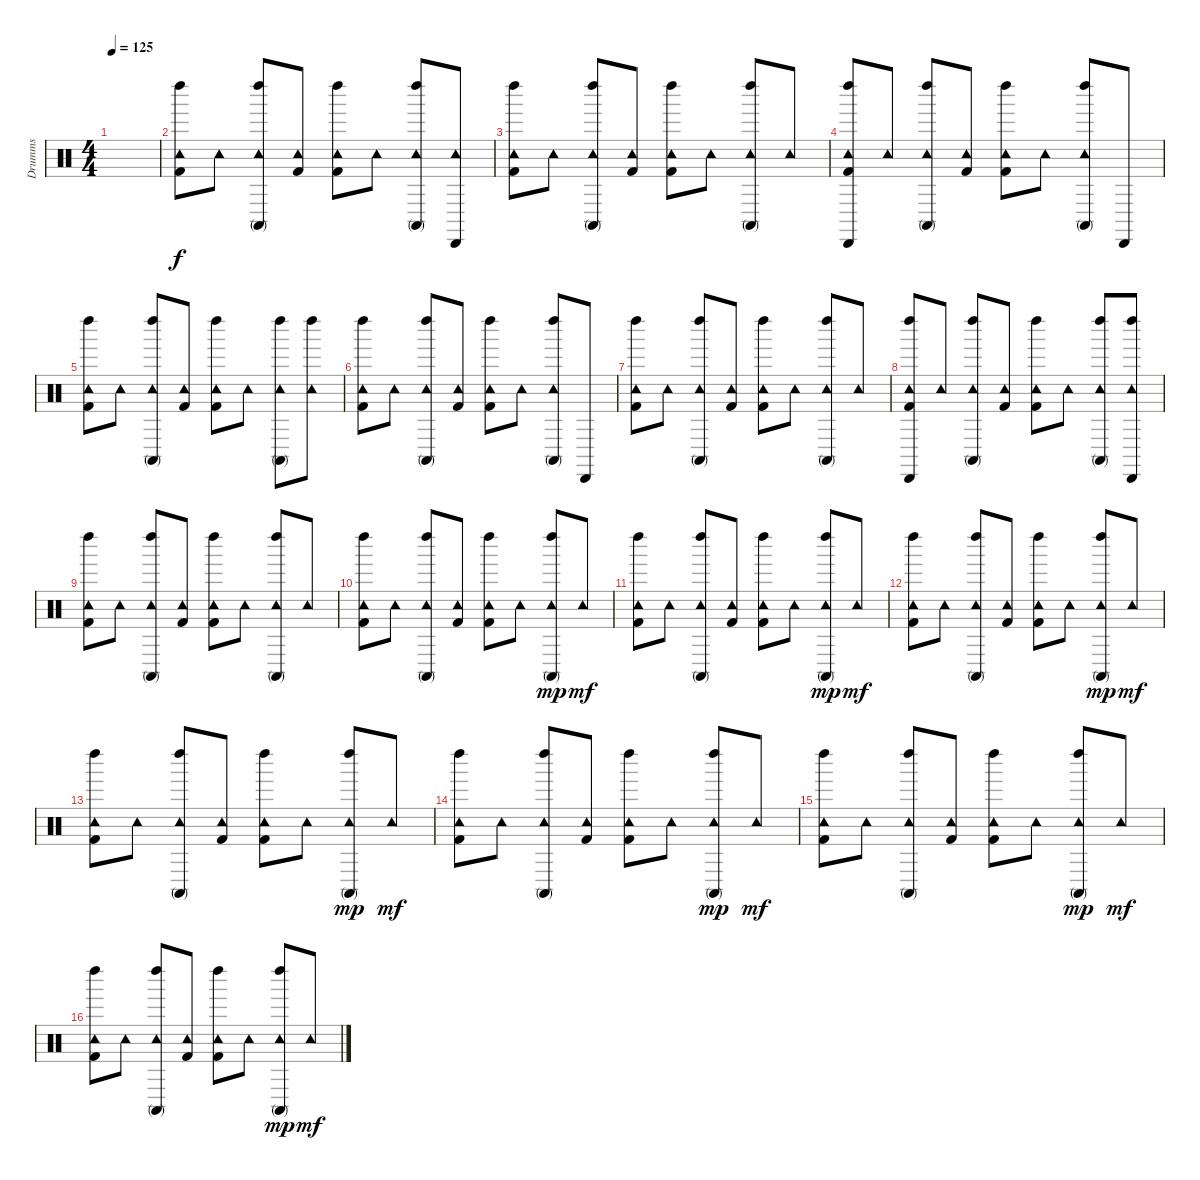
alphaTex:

\track ("Drumms" "Drumms") {instrument percussion}
\staff {score}
\articulation defaults
\ts (4 4)
\tempo 125
\clef neutral
\ks c
|
("Kick (hit) 2" "Tambourine (hit)" "Left Maraca (hit)").8{balance 8} "Tambourine (hit)".8 ("Conga high (mute)" "Tambourine (hit)" "Left Maraca (hit)").8 ("Kick (hit) 2" "Tambourine (hit)").8 ("Kick (hit) 2" "Tambourine (hit)" "Left Maraca (hit)").8 "Tambourine (hit)".8 ("Conga high (mute)" "Tambourine (hit)" "Left Maraca (hit)").8 ("Tambourine (hit)" "Cabasa (hit)").8{balance 16} |
("Kick (hit) 2" "Tambourine (hit)" "Left Maraca (hit)").8{balance 8} "Tambourine (hit)".8 ("Conga high (mute)" "Tambourine (hit)" "Left Maraca (hit)").8 ("Kick (hit) 2" "Tambourine (hit)").8 ("Kick (hit) 2" "Tambourine (hit)" "Left Maraca (hit)").8 "Tambourine (hit)".8 ("Conga high (mute)" "Tambourine (hit)" "Left Maraca (hit)").8 "Tambourine (hit)".8 |
("Kick (hit) 2" "Tambourine (hit)" "Left Maraca (hit)" "Cabasa (hit)").8{balance 8} "Tambourine (hit)".8 ("Conga high (mute)" "Tambourine (hit)" "Left Maraca (hit)").8 ("Kick (hit) 2" "Tambourine (hit)").8 ("Kick (hit) 2" "Tambourine (hit)" "Left Maraca (hit)").8 "Tambourine (hit)".8 ("Conga high (mute)" "Tambourine (hit)" "Left Maraca (hit)").8 "Cabasa (hit)".8{balance 16} |
("Kick (hit) 2" "Tambourine (hit)" "Left Maraca (hit)").8{balance 8} "Tambourine (hit)".8 ("Conga high (mute)" "Tambourine (hit)" "Left Maraca (hit)").8 ("Kick (hit) 2" "Tambourine (hit)").8 ("Kick (hit) 2" "Tambourine (hit)" "Left Maraca (hit)").8 "Tambourine (hit)".8 ("Conga high (mute)" "Tambourine (hit)" "Left Maraca (hit)").8 ("Tambourine (hit)" "Left Maraca (hit)").8 |
("Kick (hit) 2" "Tambourine (hit)" "Left Maraca (hit)").8{balance 8} "Tambourine (hit)".8 ("Conga high (mute)" "Tambourine (hit)" "Left Maraca (hit)").8 ("Kick (hit) 2" "Tambourine (hit)").8 ("Kick (hit) 2" "Tambourine (hit)" "Left Maraca (hit)").8 "Tambourine (hit)".8 ("Conga high (mute)" "Tambourine (hit)" "Left Maraca (hit)").8 "Cabasa (hit)".8{balance 16} |
("Kick (hit) 2" "Tambourine (hit)" "Left Maraca (hit)").8{balance 8} "Tambourine (hit)".8 ("Conga high (mute)" "Tambourine (hit)" "Left Maraca (hit)").8 ("Kick (hit) 2" "Tambourine (hit)").8 ("Kick (hit) 2" "Tambourine (hit)" "Left Maraca (hit)").8 "Tambourine (hit)".8 ("Conga high (mute)" "Tambourine (hit)" "Left Maraca (hit)").8 "Tambourine (hit)".8 |
("Kick (hit) 2" "Tambourine (hit)" "Left Maraca (hit)" "Cabasa (hit)").8{balance 8} "Tambourine (hit)".8 ("Conga high (mute)" "Tambourine (hit)" "Left Maraca (hit)").8 ("Kick (hit) 2" "Tambourine (hit)").8 ("Kick (hit) 2" "Tambourine (hit)" "Left Maraca (hit)").8 "Tambourine (hit)".8 ("Conga high (mute)" "Tambourine (hit)" "Left Maraca (hit)").8 ("Tambourine (hit)" "Cabasa (hit)" "Left Maraca (hit)").8{balance 16} |
("Kick (hit) 2" "Tambourine (hit)" "Left Maraca (hit)").8{balance 8} "Tambourine (hit)".8 ("Conga high (mute)" "Tambourine (hit)" "Left Maraca (hit)").8 ("Kick (hit) 2" "Tambourine (hit)").8 ("Kick (hit) 2" "Tambourine (hit)" "Left Maraca (hit)").8 "Tambourine (hit)".8 ("Conga high (mute)" "Tambourine (hit)" "Left Maraca (hit)").8 "Tambourine (hit)".8 |
("Kick (hit) 2" "Tambourine (hit)" "Left Maraca (hit)").8 "Tambourine (hit)".8 ("Conga high (mute)" "Tambourine (hit)" "Left Maraca (hit)").8 ("Kick (hit) 2" "Tambourine (hit)").8 ("Kick (hit) 2" "Tambourine (hit)" "Left Maraca (hit)").8 "Tambourine (hit)".8 ("Conga high (mute)" "Tambourine (hit)" "Left Maraca (hit)").8{dy mp} "Tambourine (hit)".8{dy mf} |
("Kick (hit) 2" "Tambourine (hit)" "Left Maraca (hit)").8 "Tambourine (hit)".8 ("Conga high (mute)" "Tambourine (hit)" "Left Maraca (hit)").8 ("Kick (hit) 2" "Tambourine (hit)").8 ("Kick (hit) 2" "Tambourine (hit)" "Left Maraca (hit)").8 "Tambourine (hit)".8 ("Conga high (mute)" "Tambourine (hit)" "Left Maraca (hit)").8{dy mp} "Tambourine (hit)".8{dy mf} |
("Kick (hit) 2" "Tambourine (hit)" "Left Maraca (hit)").8 "Tambourine (hit)".8 ("Conga high (mute)" "Tambourine (hit)" "Left Maraca (hit)").8 ("Kick (hit) 2" "Tambourine (hit)").8 ("Kick (hit) 2" "Tambourine (hit)" "Left Maraca (hit)").8 "Tambourine (hit)".8 ("Conga high (mute)" "Tambourine (hit)" "Left Maraca (hit)").8{dy mp} "Tambourine (hit)".8{dy mf} |
("Kick (hit) 2" "Tambourine (hit)" "Left Maraca (hit)").8 "Tambourine (hit)".8 ("Conga high (mute)" "Tambourine (hit)" "Left Maraca (hit)").8 ("Kick (hit) 2" "Tambourine (hit)").8 ("Kick (hit) 2" "Tambourine (hit)" "Left Maraca (hit)").8 "Tambourine (hit)".8 ("Conga high (mute)" "Tambourine (hit)" "Left Maraca (hit)").8{dy mp} "Tambourine (hit)".8{dy mf} |
("Kick (hit) 2" "Tambourine (hit)" "Left Maraca (hit)").8 "Tambourine (hit)".8 ("Conga high (mute)" "Tambourine (hit)" "Left Maraca (hit)").8 ("Kick (hit) 2" "Tambourine (hit)").8 ("Kick (hit) 2" "Tambourine (hit)" "Left Maraca (hit)").8 "Tambourine (hit)".8 ("Conga high (mute)" "Tambourine (hit)" "Left Maraca (hit)").8{dy mp} "Tambourine (hit)".8{dy mf} |
("Kick (hit) 2" "Tambourine (hit)" "Left Maraca (hit)").8 "Tambourine (hit)".8 ("Conga high (mute)" "Tambourine (hit)" "Left Maraca (hit)").8 ("Kick (hit) 2" "Tambourine (hit)").8 ("Kick (hit) 2" "Tambourine (hit)" "Left Maraca (hit)").8 "Tambourine (hit)".8 ("Conga high (mute)" "Tambourine (hit)" "Left Maraca (hit)").8{dy mp} "Tambourine (hit)".8{dy mf} |
("Kick (hit) 2" "Tambourine (hit)" "Left Maraca (hit)").8 "Tambourine (hit)".8 ("Conga high (mute)" "Tambourine (hit)" "Left Maraca (hit)").8 ("Kick (hit) 2" "Tambourine (hit)").8 ("Kick (hit) 2" "Tambourine (hit)" "Left Maraca (hit)").8 "Tambourine (hit)".8 ("Conga high (mute)" "Tambourine (hit)" "Left Maraca (hit)").8{dy mp} "Tambourine (hit)".8{dy mf}
